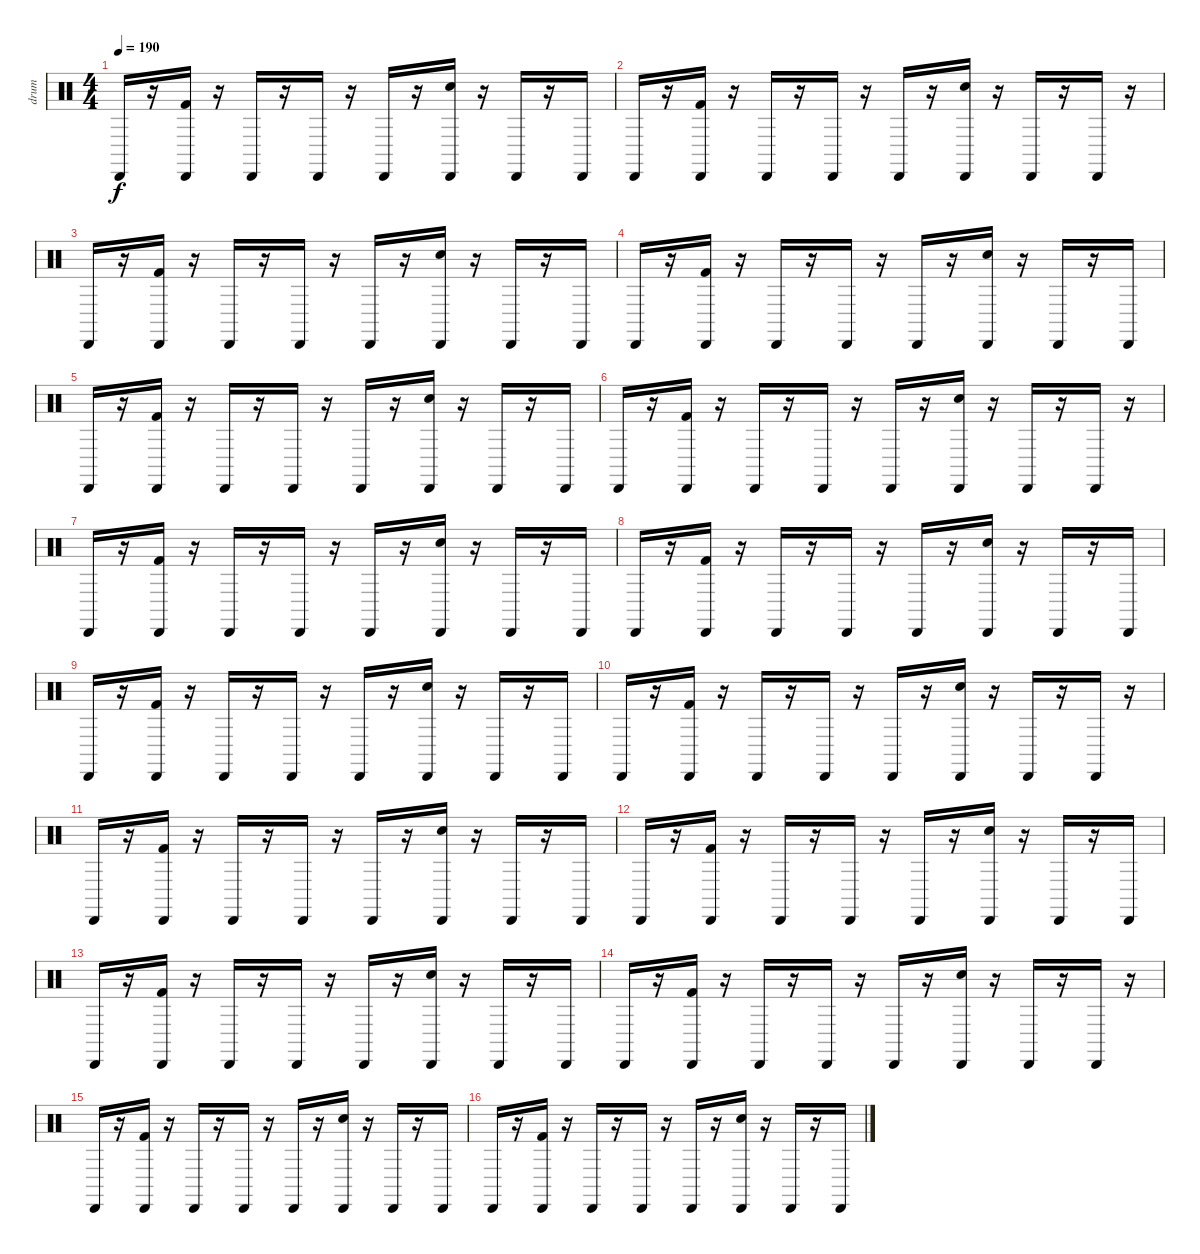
\track ("drum" "drum") {instrument percussion}
\staff {score}
\articulation defaults
\ts (4 4)
\tempo 190
\clef neutral
\ks c "Cabasa (hit)".16{dy f}
r.16 ("Cabasa (hit)" "Kick (hit) 2").16 r.16 "Cabasa (hit)".16 r.16 "Cabasa (hit)".16 r.16 "Cabasa (hit)".16 r.16 ("Cabasa (hit)" "Snare (hit) 2").16 r.16 "Cabasa (hit)".16 r.16 "Cabasa (hit)".16 |
"Cabasa (hit)".16 r.16 ("Cabasa (hit)" "Kick (hit) 2").16 r.16 "Cabasa (hit)".16 r.16 "Cabasa (hit)".16 r.16 "Cabasa (hit)".16 r.16 ("Cabasa (hit)" "Snare (hit) 2").16 r.16 "Cabasa (hit)".16 r.16 "Cabasa (hit)".16 r.16 |
"Cabasa (hit)".16 r.16 ("Cabasa (hit)" "Kick (hit) 2").16 r.16 "Cabasa (hit)".16 r.16 "Cabasa (hit)".16 r.16 "Cabasa (hit)".16 r.16 ("Cabasa (hit)" "Snare (hit) 2").16 r.16 "Cabasa (hit)".16 r.16 "Cabasa (hit)".16 |
"Cabasa (hit)".16 r.16 ("Cabasa (hit)" "Kick (hit) 2").16 r.16 "Cabasa (hit)".16 r.16 "Cabasa (hit)".16 r.16 "Cabasa (hit)".16 r.16 ("Cabasa (hit)" "Snare (hit) 2").16 r.16 "Cabasa (hit)".16 r.16 "Cabasa (hit)".16 |
"Cabasa (hit)".16 r.16 ("Cabasa (hit)" "Kick (hit) 2").16 r.16 "Cabasa (hit)".16 r.16 "Cabasa (hit)".16 r.16 "Cabasa (hit)".16 r.16 ("Cabasa (hit)" "Snare (hit) 2").16 r.16 "Cabasa (hit)".16 r.16 "Cabasa (hit)".16 |
"Cabasa (hit)".16 r.16 ("Cabasa (hit)" "Kick (hit) 2").16 r.16 "Cabasa (hit)".16 r.16 "Cabasa (hit)".16 r.16 "Cabasa (hit)".16 r.16 ("Cabasa (hit)" "Snare (hit) 2").16 r.16 "Cabasa (hit)".16 r.16 "Cabasa (hit)".16 r.16 |
"Cabasa (hit)".16 r.16 ("Cabasa (hit)" "Kick (hit) 2").16 r.16 "Cabasa (hit)".16 r.16 "Cabasa (hit)".16 r.16 "Cabasa (hit)".16 r.16 ("Cabasa (hit)" "Snare (hit) 2").16 r.16 "Cabasa (hit)".16 r.16 "Cabasa (hit)".16 |
"Cabasa (hit)".16 r.16 ("Cabasa (hit)" "Kick (hit) 2").16 r.16 "Cabasa (hit)".16 r.16 "Cabasa (hit)".16 r.16 "Cabasa (hit)".16 r.16 ("Cabasa (hit)" "Snare (hit) 2").16 r.16 "Cabasa (hit)".16 r.16 "Cabasa (hit)".16 |
"Cabasa (hit)".16 r.16 ("Cabasa (hit)" "Kick (hit) 2").16 r.16 "Cabasa (hit)".16 r.16 "Cabasa (hit)".16 r.16 "Cabasa (hit)".16 r.16 ("Cabasa (hit)" "Snare (hit) 2").16 r.16 "Cabasa (hit)".16 r.16 "Cabasa (hit)".16 |
"Cabasa (hit)".16 r.16 ("Cabasa (hit)" "Kick (hit) 2").16 r.16 "Cabasa (hit)".16 r.16 "Cabasa (hit)".16 r.16 "Cabasa (hit)".16 r.16 ("Cabasa (hit)" "Snare (hit) 2").16 r.16 "Cabasa (hit)".16 r.16 "Cabasa (hit)".16 r.16 |
"Cabasa (hit)".16 r.16 ("Cabasa (hit)" "Kick (hit) 2").16 r.16 "Cabasa (hit)".16 r.16 "Cabasa (hit)".16 r.16 "Cabasa (hit)".16 r.16 ("Cabasa (hit)" "Snare (hit) 2").16 r.16 "Cabasa (hit)".16 r.16 "Cabasa (hit)".16 |
"Cabasa (hit)".16 r.16 ("Cabasa (hit)" "Kick (hit) 2").16 r.16 "Cabasa (hit)".16 r.16 "Cabasa (hit)".16 r.16 "Cabasa (hit)".16 r.16 ("Cabasa (hit)" "Snare (hit) 2").16 r.16 "Cabasa (hit)".16 r.16 "Cabasa (hit)".16 |
"Cabasa (hit)".16 r.16 ("Cabasa (hit)" "Kick (hit) 2").16 r.16 "Cabasa (hit)".16 r.16 "Cabasa (hit)".16 r.16 "Cabasa (hit)".16 r.16 ("Cabasa (hit)" "Snare (hit) 2").16 r.16 "Cabasa (hit)".16 r.16 "Cabasa (hit)".16 |
"Cabasa (hit)".16 r.16 ("Cabasa (hit)" "Kick (hit) 2").16 r.16 "Cabasa (hit)".16 r.16 "Cabasa (hit)".16 r.16 "Cabasa (hit)".16 r.16 ("Cabasa (hit)" "Snare (hit) 2").16 r.16 "Cabasa (hit)".16 r.16 "Cabasa (hit)".16 r.16 |
"Cabasa (hit)".16 r.16 ("Cabasa (hit)" "Kick (hit) 2").16 r.16 "Cabasa (hit)".16 r.16 "Cabasa (hit)".16 r.16 "Cabasa (hit)".16 r.16 ("Cabasa (hit)" "Snare (hit) 2").16 r.16 "Cabasa (hit)".16 r.16 "Cabasa (hit)".16 |
"Cabasa (hit)".16 r.16 ("Cabasa (hit)" "Kick (hit) 2").16 r.16 "Cabasa (hit)".16 r.16 "Cabasa (hit)".16 r.16 "Cabasa (hit)".16 r.16 ("Cabasa (hit)" "Snare (hit) 2").16 r.16 "Cabasa (hit)".16 r.16 "Cabasa (hit)".16
